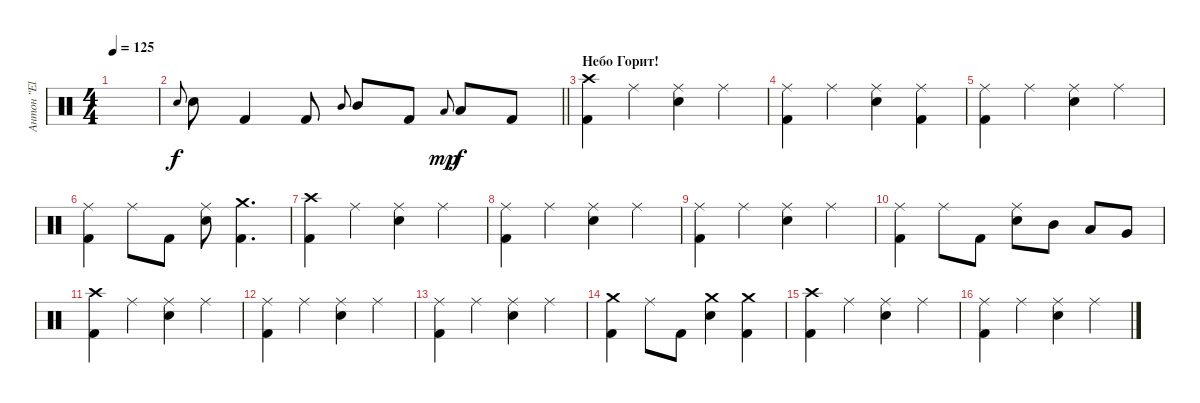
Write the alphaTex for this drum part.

\track ("Антон \"El Bastardo\" Смольянин" "Антон \"El ") {instrument percussion}
\staff {score}
\articulation defaults
\ts (4 4)
\tempo 125
\clef neutral
\ks c
|
\barLineRight lightlight "Electric Snare (hit)".8{gr onbeat} "Electric Snare (hit)".8 "Kick (hit) 2".4 "Kick (hit) 2".8 "Mid Tom (hit)".8{gr onbeat} "Mid Tom (hit)".8 "Kick (hit) 2".8 "Low Tom (hit)".8{gr onbeat dy mp} "Low Tom (hit)".8{dy f} "Kick (hit) 2".8
|
\section ("" "Небо Горит!")
("Crash high (hit)" "Kick (hit) 2").4 "Ride (middle)".4 ("Ride (middle)" "Electric Snare (hit)").4 "Ride (middle)".4 |
("Ride (middle)" "Kick (hit) 2").4 "Ride (middle)".4 ("Ride (middle)" "Electric Snare (hit)").4 ("Ride (middle)" "Kick (hit) 2").4 |
("Ride (middle)" "Kick (hit) 2").4 "Ride (middle)".4 ("Ride (middle)" "Electric Snare (hit)").4 "Ride (middle)".4 |
("Ride (middle)" "Kick (hit) 2").4 "Ride (middle)".8 "Kick (hit) 2".8 ("Ride (middle)" "Electric Snare (hit)").8 ("Crash medium (hit)" "Kick (hit) 2").4{d} |
("Crash high (hit)" "Kick (hit) 2").4 "Ride (middle)".4 ("Ride (middle)" "Electric Snare (hit)").4 "Ride (middle)".4 |
("Ride (middle)" "Kick (hit) 2").4 "Ride (middle)".4 ("Ride (middle)" "Electric Snare (hit)").4 "Ride (middle)".4 |
("Ride (middle)" "Kick (hit) 2").4 "Ride (middle)".4 ("Ride (middle)" "Electric Snare (hit)").4 "Ride (middle)".4 |
("Ride (middle)" "Kick (hit) 2").4 "Ride (middle)".8 "Kick (hit) 2".8 ("Ride (middle)" "Electric Snare (hit)").8 "Mid Tom (hit)".8 "Low Tom (hit)".8 "Very Low Tom (hit)".8 |
("Crash high (hit)" "Kick (hit) 2").4 "Ride (middle)".4 ("Ride (middle)" "Electric Snare (hit)").4 "Ride (middle)".4 |
("Ride (middle)" "Kick (hit) 2").4 "Ride (middle)".4 ("Ride (middle)" "Electric Snare (hit)").4 "Ride (middle)".4 |
("Ride (middle)" "Kick (hit) 2").4 "Ride (middle)".4 ("Ride (middle)" "Electric Snare (hit)").4 "Ride (middle)".4 |
("Crash medium (hit)" "Kick (hit) 2").4 "Ride (middle)".8 "Kick (hit) 2".8 ("Crash medium (hit)" "Electric Snare (hit)").4 ("Crash medium (hit)" "Kick (hit) 2").4 |
("Crash high (hit)" "Kick (hit) 2").4 "Ride (middle)".4 ("Ride (middle)" "Electric Snare (hit)").4 "Ride (middle)".4 |
("Ride (middle)" "Kick (hit) 2").4 "Ride (middle)".4 ("Ride (middle)" "Electric Snare (hit)").4 "Ride (middle)".4
